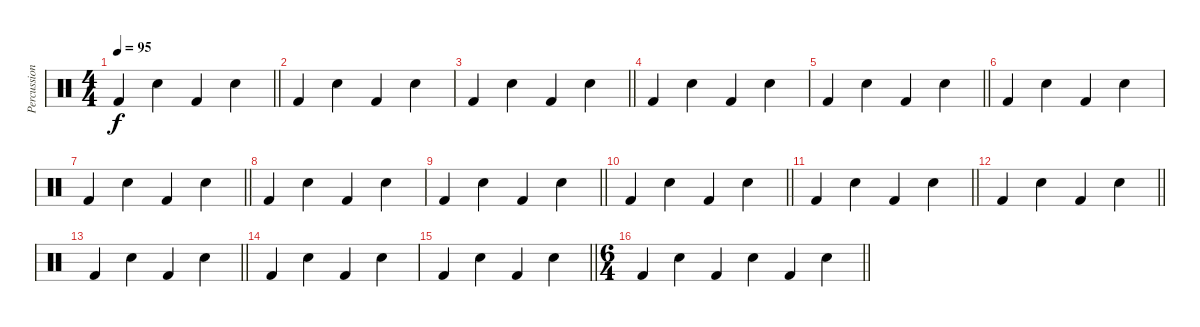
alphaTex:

\track ("Percussion" "Percussion") {instrument percussion}
\staff {score}
\articulation defaults
\ts (4 4)
\tempo 95
\clef neutral
\barLineRight lightlight
\ks c "Kick (hit) 2".4{dy f} "Snare (hit) 2".4 "Kick (hit) 2".4 "Snare (hit) 2".4
|
"Kick (hit) 2".4 "Snare (hit) 2".4 "Kick (hit) 2".4 "Snare (hit) 2".4 |
\barLineRight lightlight "Kick (hit) 2".4 "Snare (hit) 2".4 "Kick (hit) 2".4 "Snare (hit) 2".4
|
"Kick (hit) 2".4 "Snare (hit) 2".4 "Kick (hit) 2".4 "Snare (hit) 2".4 |
\barLineRight lightlight "Kick (hit) 2".4 "Snare (hit) 2".4 "Kick (hit) 2".4 "Snare (hit) 2".4
|
"Kick (hit) 2".4 "Snare (hit) 2".4 "Kick (hit) 2".4 "Snare (hit) 2".4 |
\barLineRight lightlight "Kick (hit) 2".4 "Snare (hit) 2".4 "Kick (hit) 2".4 "Snare (hit) 2".4
|
"Kick (hit) 2".4 "Snare (hit) 2".4 "Kick (hit) 2".4 "Snare (hit) 2".4 |
\barLineRight lightlight "Kick (hit) 2".4 "Snare (hit) 2".4 "Kick (hit) 2".4 "Snare (hit) 2".4
|
\barLineRight lightlight "Kick (hit) 2".4 "Snare (hit) 2".4 "Kick (hit) 2".4 "Snare (hit) 2".4
|
\barLineRight lightlight "Kick (hit) 2".4 "Snare (hit) 2".4 "Kick (hit) 2".4 "Snare (hit) 2".4
|
\barLineRight lightlight "Kick (hit) 2".4 "Snare (hit) 2".4 "Kick (hit) 2".4 "Snare (hit) 2".4
|
\barLineRight lightlight "Kick (hit) 2".4 "Snare (hit) 2".4 "Kick (hit) 2".4 "Snare (hit) 2".4
|
"Kick (hit) 2".4 "Snare (hit) 2".4 "Kick (hit) 2".4 "Snare (hit) 2".4 |
\barLineRight lightlight "Kick (hit) 2".4 "Snare (hit) 2".4 "Kick (hit) 2".4 "Snare (hit) 2".4
|
\ts (6 4)
\barLineRight lightlight "Kick (hit) 2".4 "Snare (hit) 2".4 "Kick (hit) 2".4 "Snare (hit) 2".4 "Kick (hit) 2".4 "Snare (hit) 2".4
